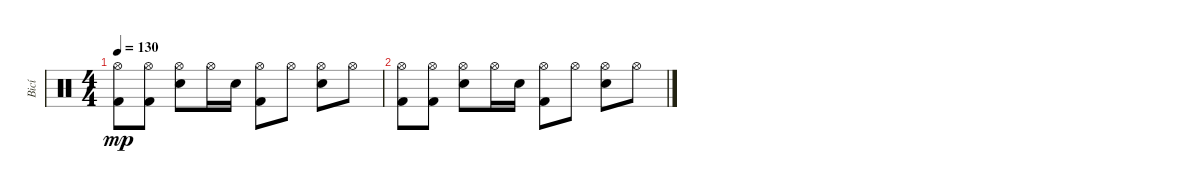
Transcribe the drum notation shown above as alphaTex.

\track ("Bicí" "Bicí") {instrument percussion}
\staff {score}
\articulation defaults
\ts (4 4)
\tempo 130
\clef neutral
\ks c
("Hi-Hat (open)" "Kick (hit) 2").8{dy mp} ("Hi-Hat (open)" "Kick (hit) 2").8 ("Hi-Hat (open)" "Electric Snare (hit)").8 "Hi-Hat (open)".16 "Electric Snare (hit)".16 ("Hi-Hat (open)" "Kick (hit) 2").8 "Hi-Hat (open)".8 ("Hi-Hat (open)" "Electric Snare (hit)").8 "Hi-Hat (open)".8 |
("Hi-Hat (open)" "Kick (hit) 2").8 ("Hi-Hat (open)" "Kick (hit) 2").8 ("Hi-Hat (open)" "Electric Snare (hit)").8 "Hi-Hat (open)".16 "Electric Snare (hit)".16 ("Hi-Hat (open)" "Kick (hit) 2").8 "Hi-Hat (open)".8 ("Hi-Hat (open)" "Electric Snare (hit)").8 "Hi-Hat (open)".8
